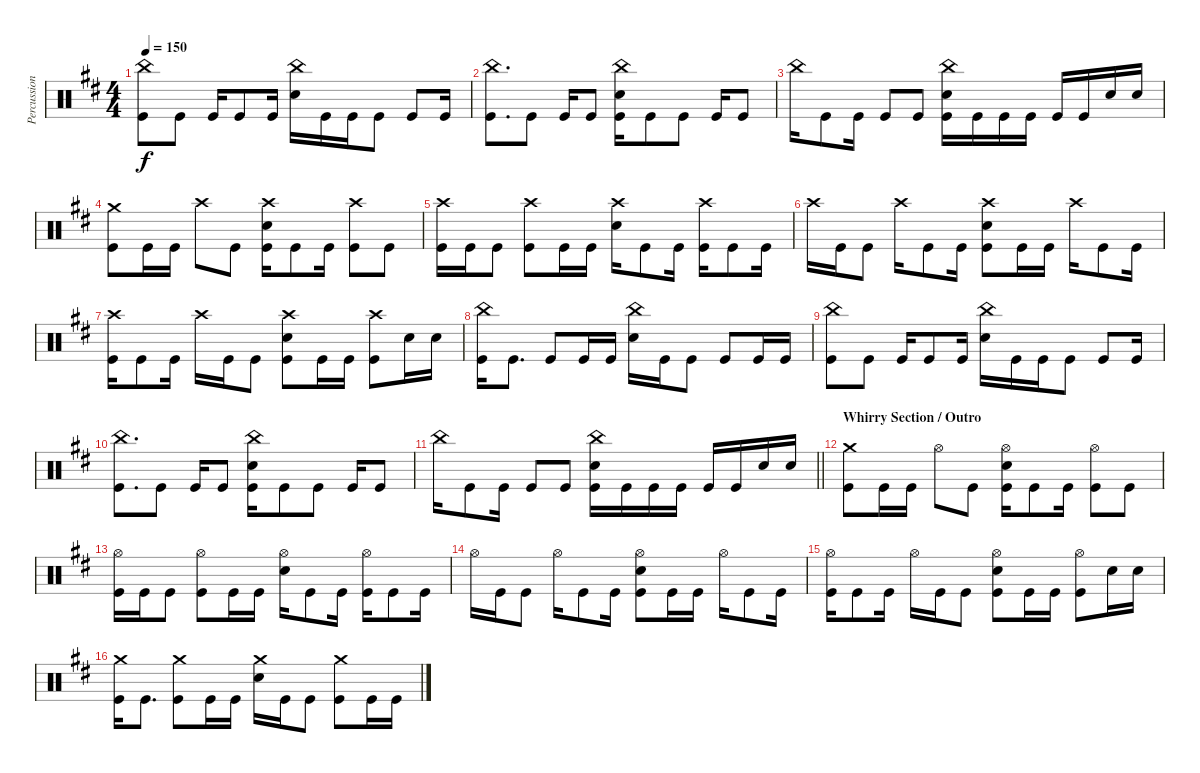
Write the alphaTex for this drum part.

\track ("Percussion" "Percussion") {instrument percussion}
\staff {score}
\articulation defaults
\ts (4 4)
\tempo 150
\clef neutral
\ks d
("China (hit)" "Kick (hit)").8{dy f} "Kick (hit)".8 "Kick (hit)".16 "Kick (hit)".8 "Kick (hit)".16 ("China (hit)" "Electric Snare (hit)").16 "Kick (hit)".16 "Kick (hit)".16 "Kick (hit)".8 "Kick (hit)".8 "Kick (hit)".16 |
("China (hit)" "Kick (hit)").8{d} "Kick (hit)".8 "Kick (hit)".16 "Kick (hit)".8 ("China (hit)" "Electric Snare (hit)" "Kick (hit)").16 "Kick (hit)".8 "Kick (hit)".8 "Kick (hit)".16 "Kick (hit)".8 |
"China (hit)".16 "Kick (hit)".8 "Kick (hit)".16 "Kick (hit)".8 "Kick (hit)".8 ("China (hit)" "Electric Snare (hit)" "Kick (hit)").16 "Kick (hit)".16 "Kick (hit)".16 "Kick (hit)".16 "Kick (hit)".16 "Kick (hit)".16 "Electric Snare (hit)".16 "Electric Snare (hit)".16 |
("Crash medium (hit)" "Kick (hit)").8 "Kick (hit)".16 "Kick (hit)".16 "Crash high (hit)".8 "Kick (hit)".8 ("Crash high (hit)" "Electric Snare (hit)" "Kick (hit)").16 "Kick (hit)".8 "Kick (hit)".16 ("Crash high (hit)" "Kick (hit)").8 "Kick (hit)".8 |
("Crash high (hit)" "Kick (hit)").16 "Kick (hit)".16 "Kick (hit)".8 ("Crash high (hit)" "Kick (hit)").8 "Kick (hit)".16 "Kick (hit)".16 ("Crash high (hit)" "Electric Snare (hit)").16 "Kick (hit)".8 "Kick (hit)".16 ("Crash high (hit)" "Kick (hit)").16 "Kick (hit)".8 "Kick (hit)".16 |
"Crash high (hit)".16 "Kick (hit)".16 "Kick (hit)".8 "Crash high (hit)".16 "Kick (hit)".8 "Kick (hit)".16 ("Crash high (hit)" "Electric Snare (hit)" "Kick (hit)").8 "Kick (hit)".16 "Kick (hit)".16 "Crash high (hit)".16 "Kick (hit)".8 "Kick (hit)".16 |
("Crash high (hit)" "Kick (hit)").16 "Kick (hit)".8 "Kick (hit)".16 "Crash high (hit)".16 "Kick (hit)".16 "Kick (hit)".8 ("Crash high (hit)" "Electric Snare (hit)" "Kick (hit)").8 "Kick (hit)".16 "Kick (hit)".16 ("Crash high (hit)" "Kick (hit)").8 "Electric Snare (hit)".16 "Electric Snare (hit)".16 |
("China (hit)" "Kick (hit)").16 "Kick (hit)".8{d} "Kick (hit)".8 "Kick (hit)".16 "Kick (hit)".16 ("China (hit)" "Electric Snare (hit)").16 "Kick (hit)".16 "Kick (hit)".8 "Kick (hit)".8 "Kick (hit)".16 "Kick (hit)".16 |
("China (hit)" "Kick (hit)").8 "Kick (hit)".8 "Kick (hit)".16 "Kick (hit)".8 "Kick (hit)".16 ("China (hit)" "Electric Snare (hit)").16 "Kick (hit)".16 "Kick (hit)".16 "Kick (hit)".8 "Kick (hit)".8 "Kick (hit)".16 |
("China (hit)" "Kick (hit)").8{d} "Kick (hit)".8 "Kick (hit)".16 "Kick (hit)".8 ("China (hit)" "Electric Snare (hit)" "Kick (hit)").16 "Kick (hit)".8 "Kick (hit)".8 "Kick (hit)".16 "Kick (hit)".8 |
\barLineRight lightlight "China (hit)".16 "Kick (hit)".8 "Kick (hit)".16 "Kick (hit)".8 "Kick (hit)".8
("China (hit)" "Electric Snare (hit)" "Kick (hit)").16 "Kick (hit)".16 "Kick (hit)".16 "Kick (hit)".16 "Kick (hit)".16 "Kick (hit)".16 "Electric Snare (hit)".16 "Electric Snare (hit)".16 |
\section ("" "Whirry Section / Outro")
("Crash medium (hit)" "Kick (hit)").8 "Kick (hit)".16 "Kick (hit)".16 "Hi-Hat (open)".8 "Kick (hit)".8 ("Hi-Hat (open)" "Electric Snare (hit)" "Kick (hit)").16 "Kick (hit)".8 "Kick (hit)".16 ("Hi-Hat (open)" "Kick (hit)").8 "Kick (hit)".8 |
("Hi-Hat (open)" "Kick (hit)").16 "Kick (hit)".16 "Kick (hit)".8 ("Hi-Hat (open)" "Kick (hit)").8 "Kick (hit)".16 "Kick (hit)".16 ("Hi-Hat (open)" "Electric Snare (hit)").16 "Kick (hit)".8 "Kick (hit)".16 ("Hi-Hat (open)" "Kick (hit)").16 "Kick (hit)".8 "Kick (hit)".16 |
"Hi-Hat (open)".16 "Kick (hit)".16 "Kick (hit)".8 "Hi-Hat (open)".16 "Kick (hit)".8 "Kick (hit)".16 ("Hi-Hat (open)" "Electric Snare (hit)" "Kick (hit)").8 "Kick (hit)".16 "Kick (hit)".16 "Hi-Hat (open)".16 "Kick (hit)".8 "Kick (hit)".16 |
("Hi-Hat (open)" "Kick (hit)").16 "Kick (hit)".8 "Kick (hit)".16 "Hi-Hat (open)".16 "Kick (hit)".16 "Kick (hit)".8 ("Hi-Hat (open)" "Electric Snare (hit)" "Kick (hit)").8 "Kick (hit)".16 "Kick (hit)".16 ("Hi-Hat (open)" "Kick (hit)").8 "Electric Snare (hit)".16 "Electric Snare (hit)".16 |
("Crash medium (hit)" "Kick (hit)").16 "Kick (hit)".8{d} ("Crash medium (hit)" "Kick (hit)").8 "Kick (hit)".16 "Kick (hit)".16 ("Crash medium (hit)" "Electric Snare (hit)").16 "Kick (hit)".16 "Kick (hit)".8 ("Crash medium (hit)" "Kick (hit)").8 "Kick (hit)".16 "Kick (hit)".16
